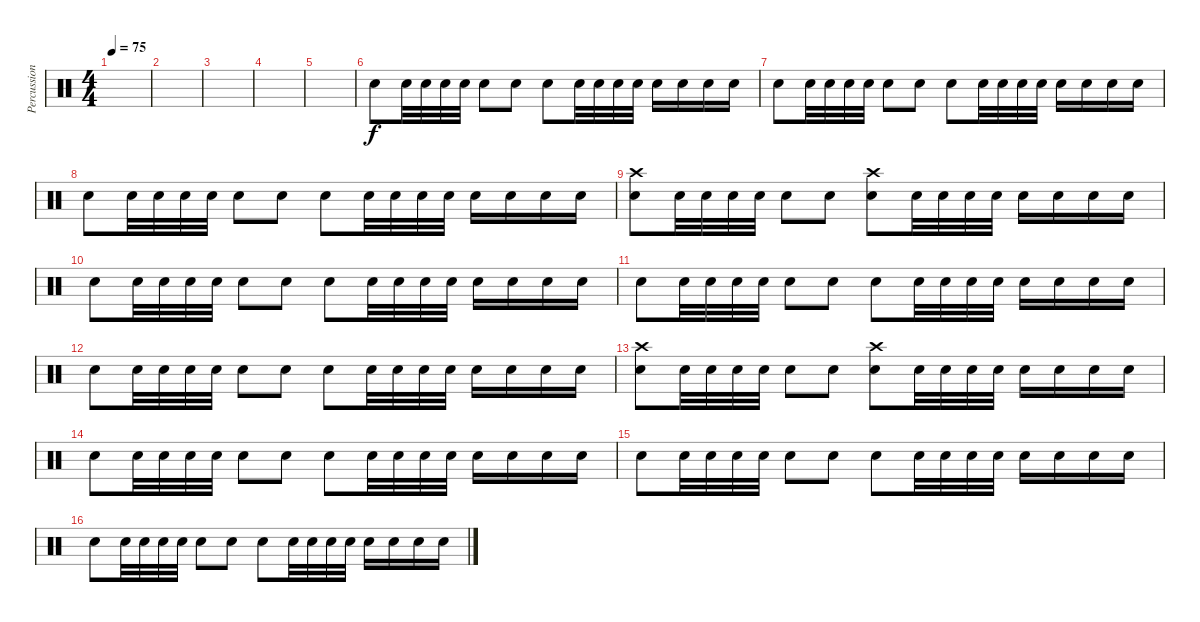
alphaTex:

\track ("Percussion" "Percussion") {instrument percussion}
\staff {score}
\articulation defaults
\ts (4 4)
\tempo 75
\clef neutral
\ks c
|
|
|
|
|
"Electric Snare (hit)".8{volume 5} "Electric Snare (hit)".32 "Electric Snare (hit)".32 "Electric Snare (hit)".32 "Electric Snare (hit)".32 "Electric Snare (hit)".8 "Electric Snare (hit)".8 "Electric Snare (hit)".8 "Electric Snare (hit)".32 "Electric Snare (hit)".32 "Electric Snare (hit)".32 "Electric Snare (hit)".32 "Electric Snare (hit)".16 "Electric Snare (hit)".16 "Electric Snare (hit)".16 "Electric Snare (hit)".16 |
"Electric Snare (hit)".8{volume 5} "Electric Snare (hit)".32 "Electric Snare (hit)".32 "Electric Snare (hit)".32 "Electric Snare (hit)".32 "Electric Snare (hit)".8 "Electric Snare (hit)".8 "Electric Snare (hit)".8 "Electric Snare (hit)".32 "Electric Snare (hit)".32 "Electric Snare (hit)".32 "Electric Snare (hit)".32 "Electric Snare (hit)".16 "Electric Snare (hit)".16 "Electric Snare (hit)".16 "Electric Snare (hit)".16 |
"Electric Snare (hit)".8{volume 5} "Electric Snare (hit)".32 "Electric Snare (hit)".32 "Electric Snare (hit)".32 "Electric Snare (hit)".32 "Electric Snare (hit)".8 "Electric Snare (hit)".8 "Electric Snare (hit)".8 "Electric Snare (hit)".32 "Electric Snare (hit)".32 "Electric Snare (hit)".32 "Electric Snare (hit)".32 "Electric Snare (hit)".16 "Electric Snare (hit)".16 "Electric Snare (hit)".16 "Electric Snare (hit)".16 |
("Crash high (hit)" "Electric Snare (hit)").8{volume 5} "Electric Snare (hit)".32 "Electric Snare (hit)".32 "Electric Snare (hit)".32 "Electric Snare (hit)".32 "Electric Snare (hit)".8 "Electric Snare (hit)".8 ("Crash high (hit)" "Electric Snare (hit)").8 "Electric Snare (hit)".32 "Electric Snare (hit)".32 "Electric Snare (hit)".32 "Electric Snare (hit)".32 "Electric Snare (hit)".16 "Electric Snare (hit)".16 "Electric Snare (hit)".16 "Electric Snare (hit)".16 |
"Electric Snare (hit)".8{volume 5} "Electric Snare (hit)".32 "Electric Snare (hit)".32 "Electric Snare (hit)".32 "Electric Snare (hit)".32 "Electric Snare (hit)".8 "Electric Snare (hit)".8 "Electric Snare (hit)".8 "Electric Snare (hit)".32 "Electric Snare (hit)".32 "Electric Snare (hit)".32 "Electric Snare (hit)".32 "Electric Snare (hit)".16 "Electric Snare (hit)".16 "Electric Snare (hit)".16 "Electric Snare (hit)".16 |
"Electric Snare (hit)".8{volume 5} "Electric Snare (hit)".32 "Electric Snare (hit)".32 "Electric Snare (hit)".32 "Electric Snare (hit)".32 "Electric Snare (hit)".8 "Electric Snare (hit)".8 "Electric Snare (hit)".8 "Electric Snare (hit)".32 "Electric Snare (hit)".32 "Electric Snare (hit)".32 "Electric Snare (hit)".32 "Electric Snare (hit)".16 "Electric Snare (hit)".16 "Electric Snare (hit)".16 "Electric Snare (hit)".16 |
"Electric Snare (hit)".8{volume 5} "Electric Snare (hit)".32 "Electric Snare (hit)".32 "Electric Snare (hit)".32 "Electric Snare (hit)".32 "Electric Snare (hit)".8 "Electric Snare (hit)".8 "Electric Snare (hit)".8 "Electric Snare (hit)".32 "Electric Snare (hit)".32 "Electric Snare (hit)".32 "Electric Snare (hit)".32 "Electric Snare (hit)".16 "Electric Snare (hit)".16 "Electric Snare (hit)".16 "Electric Snare (hit)".16 |
("Crash high (hit)" "Electric Snare (hit)").8{volume 5} "Electric Snare (hit)".32 "Electric Snare (hit)".32 "Electric Snare (hit)".32 "Electric Snare (hit)".32 "Electric Snare (hit)".8 "Electric Snare (hit)".8 ("Crash high (hit)" "Electric Snare (hit)").8 "Electric Snare (hit)".32 "Electric Snare (hit)".32 "Electric Snare (hit)".32 "Electric Snare (hit)".32 "Electric Snare (hit)".16 "Electric Snare (hit)".16 "Electric Snare (hit)".16 "Electric Snare (hit)".16 |
"Electric Snare (hit)".8{volume 5} "Electric Snare (hit)".32 "Electric Snare (hit)".32 "Electric Snare (hit)".32 "Electric Snare (hit)".32 "Electric Snare (hit)".8 "Electric Snare (hit)".8 "Electric Snare (hit)".8 "Electric Snare (hit)".32 "Electric Snare (hit)".32 "Electric Snare (hit)".32 "Electric Snare (hit)".32 "Electric Snare (hit)".16 "Electric Snare (hit)".16 "Electric Snare (hit)".16 "Electric Snare (hit)".16 |
"Electric Snare (hit)".8{volume 5} "Electric Snare (hit)".32 "Electric Snare (hit)".32 "Electric Snare (hit)".32 "Electric Snare (hit)".32 "Electric Snare (hit)".8 "Electric Snare (hit)".8 "Electric Snare (hit)".8 "Electric Snare (hit)".32 "Electric Snare (hit)".32 "Electric Snare (hit)".32 "Electric Snare (hit)".32 "Electric Snare (hit)".16 "Electric Snare (hit)".16 "Electric Snare (hit)".16 "Electric Snare (hit)".16 |
"Electric Snare (hit)".8{volume 5} "Electric Snare (hit)".32 "Electric Snare (hit)".32 "Electric Snare (hit)".32 "Electric Snare (hit)".32 "Electric Snare (hit)".8 "Electric Snare (hit)".8 "Electric Snare (hit)".8 "Electric Snare (hit)".32 "Electric Snare (hit)".32 "Electric Snare (hit)".32 "Electric Snare (hit)".32 "Electric Snare (hit)".16 "Electric Snare (hit)".16 "Electric Snare (hit)".16 "Electric Snare (hit)".16
